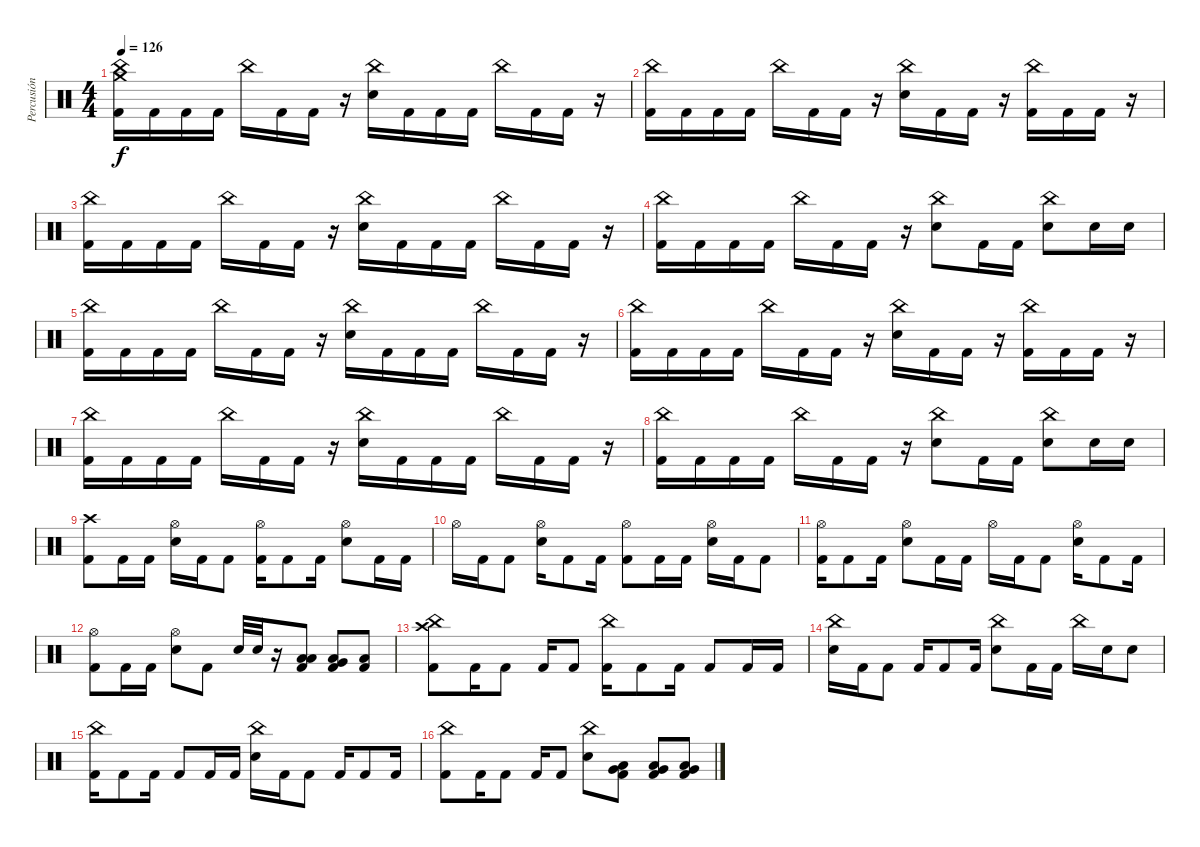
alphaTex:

\track ("Percusión" "Percusión") {instrument percussion}
\staff {score}
\articulation defaults
\ts (4 4)
\tempo 126
\clef neutral
\ks c
("Crash medium (hit)" "China (hit)" "Kick (hit) 2").16{dy f} "Kick (hit) 2".16 "Kick (hit) 2".16 "Kick (hit) 2".16 "China (hit)".16 "Kick (hit) 2".16 "Kick (hit) 2".16 r.16 ("China (hit)" "Electric Snare (hit)").16 "Kick (hit) 2".16 "Kick (hit) 2".16 "Kick (hit) 2".16 "China (hit)".16 "Kick (hit) 2".16 "Kick (hit) 2".16 r.16 |
("China (hit)" "Kick (hit) 2").16 "Kick (hit) 2".16 "Kick (hit) 2".16 "Kick (hit) 2".16 "China (hit)".16 "Kick (hit) 2".16 "Kick (hit) 2".16 r.16 ("China (hit)" "Electric Snare (hit)").16 "Kick (hit) 2".16 "Kick (hit) 2".16 r.16 ("China (hit)" "Kick (hit) 2").16 "Kick (hit) 2".16 "Kick (hit) 2".16 r.16 |
("China (hit)" "Kick (hit) 2").16 "Kick (hit) 2".16 "Kick (hit) 2".16 "Kick (hit) 2".16 "China (hit)".16 "Kick (hit) 2".16 "Kick (hit) 2".16 r.16 ("China (hit)" "Electric Snare (hit)").16 "Kick (hit) 2".16 "Kick (hit) 2".16 "Kick (hit) 2".16 "China (hit)".16 "Kick (hit) 2".16 "Kick (hit) 2".16 r.16 |
("China (hit)" "Kick (hit) 2").16 "Kick (hit) 2".16 "Kick (hit) 2".16 "Kick (hit) 2".16 "China (hit)".16 "Kick (hit) 2".16 "Kick (hit) 2".16 r.16 ("China (hit)" "Electric Snare (hit)").8 "Kick (hit) 2".16 "Kick (hit) 2".16 ("China (hit)" "Electric Snare (hit)").8 "Electric Snare (hit)".16 "Electric Snare (hit)".16 |
("China (hit)" "Kick (hit) 2").16 "Kick (hit) 2".16 "Kick (hit) 2".16 "Kick (hit) 2".16 "China (hit)".16 "Kick (hit) 2".16 "Kick (hit) 2".16 r.16 ("China (hit)" "Electric Snare (hit)").16 "Kick (hit) 2".16 "Kick (hit) 2".16 "Kick (hit) 2".16 "China (hit)".16 "Kick (hit) 2".16 "Kick (hit) 2".16 r.16 |
("China (hit)" "Kick (hit) 2").16 "Kick (hit) 2".16 "Kick (hit) 2".16 "Kick (hit) 2".16 "China (hit)".16 "Kick (hit) 2".16 "Kick (hit) 2".16 r.16 ("China (hit)" "Electric Snare (hit)").16 "Kick (hit) 2".16 "Kick (hit) 2".16 r.16 ("China (hit)" "Kick (hit) 2").16 "Kick (hit) 2".16 "Kick (hit) 2".16 r.16 |
("China (hit)" "Kick (hit) 2").16 "Kick (hit) 2".16 "Kick (hit) 2".16 "Kick (hit) 2".16 "China (hit)".16 "Kick (hit) 2".16 "Kick (hit) 2".16 r.16 ("China (hit)" "Electric Snare (hit)").16 "Kick (hit) 2".16 "Kick (hit) 2".16 "Kick (hit) 2".16 "China (hit)".16 "Kick (hit) 2".16 "Kick (hit) 2".16 r.16 |
("China (hit)" "Kick (hit) 2").16 "Kick (hit) 2".16 "Kick (hit) 2".16 "Kick (hit) 2".16 "China (hit)".16 "Kick (hit) 2".16 "Kick (hit) 2".16 r.16 ("China (hit)" "Electric Snare (hit)").8 "Kick (hit) 2".16 "Kick (hit) 2".16 ("China (hit)" "Electric Snare (hit)").8 "Electric Snare (hit)".16 "Electric Snare (hit)".16 |
("Crash high (hit)" "Kick (hit) 2").8 "Kick (hit) 2".16 "Kick (hit) 2".16 ("Hi-Hat (open)" "Electric Snare (hit)").16 "Kick (hit) 2".16 "Kick (hit) 2".8 ("Hi-Hat (open)" "Kick (hit) 2").16 "Kick (hit) 2".8 "Kick (hit) 2".16 ("Hi-Hat (open)" "Electric Snare (hit)").8 "Kick (hit) 2".16 "Kick (hit) 2".16 |
"Hi-Hat (open)".16 "Kick (hit) 2".16 "Kick (hit) 2".8 ("Hi-Hat (open)" "Electric Snare (hit)").16 "Kick (hit) 2".8 "Kick (hit) 2".16 ("Hi-Hat (open)" "Kick (hit) 2").8 "Kick (hit) 2".16 "Kick (hit) 2".16 ("Hi-Hat (open)" "Electric Snare (hit)").16 "Kick (hit) 2".16 "Kick (hit) 2".8 |
("Hi-Hat (open)" "Kick (hit) 2").16 "Kick (hit) 2".8 "Kick (hit) 2".16 ("Hi-Hat (open)" "Electric Snare (hit)").8 "Kick (hit) 2".16 "Kick (hit) 2".16 "Hi-Hat (open)".16 "Kick (hit) 2".16 "Kick (hit) 2".8 ("Hi-Hat (open)" "Electric Snare (hit)").16 "Kick (hit) 2".8 "Kick (hit) 2".16 |
("Hi-Hat (open)" "Kick (hit) 2").8 "Kick (hit) 2".16 "Kick (hit) 2".16 ("Hi-Hat (open)" "Electric Snare (hit)").8 "Kick (hit) 2".8 "Electric Snare (hit)".32 "Electric Snare (hit)".32 r.16 ("Low Floor Tom (hit)" "Low Tom (hit)" "Kick (hit) 2").8 ("Low Floor Tom (hit)" "Very Low Tom (hit)" "Kick (hit) 2").8 ("Low Floor Tom (hit)" "Kick (hit) 2").8 |
("Crash high (hit)" "China (hit)" "Kick (hit) 2").8 "Kick (hit) 2".16 "Kick (hit) 2".8 "Kick (hit) 2".16 "Kick (hit) 2".8 ("China (hit)" "Kick (hit) 2").16 "Kick (hit) 2".8 "Kick (hit) 2".16 "Kick (hit) 2".8 "Kick (hit) 2".16 "Kick (hit) 2".16 |
("China (hit)" "Electric Snare (hit)").16 "Kick (hit) 2".16 "Kick (hit) 2".8 "Kick (hit) 2".16 "Kick (hit) 2".8 "Kick (hit) 2".16 ("China (hit)" "Electric Snare (hit)").8 "Kick (hit) 2".16 "Kick (hit) 2".16 "China (hit)".16 "Electric Snare (hit)".16 "Electric Snare (hit)".8 |
("China (hit)" "Kick (hit) 2").16 "Kick (hit) 2".8 "Kick (hit) 2".16 "Kick (hit) 2".8 "Kick (hit) 2".16 "Kick (hit) 2".16 ("China (hit)" "Electric Snare (hit)").16 "Kick (hit) 2".16 "Kick (hit) 2".8 "Kick (hit) 2".16 "Kick (hit) 2".8 "Kick (hit) 2".16 |
("China (hit)" "Kick (hit) 2").8 "Kick (hit) 2".16 "Kick (hit) 2".8 "Kick (hit) 2".16 "Kick (hit) 2".8 ("China (hit)" "Electric Snare (hit)").8 ("Low Floor Tom (hit)" "Very Low Tom (hit)" "Kick (hit) 2").8 ("Low Floor Tom (hit)" "Very Low Tom (hit)" "Kick (hit) 2").8 ("Low Floor Tom (hit)" "Very Low Tom (hit)" "Kick (hit) 2").8
